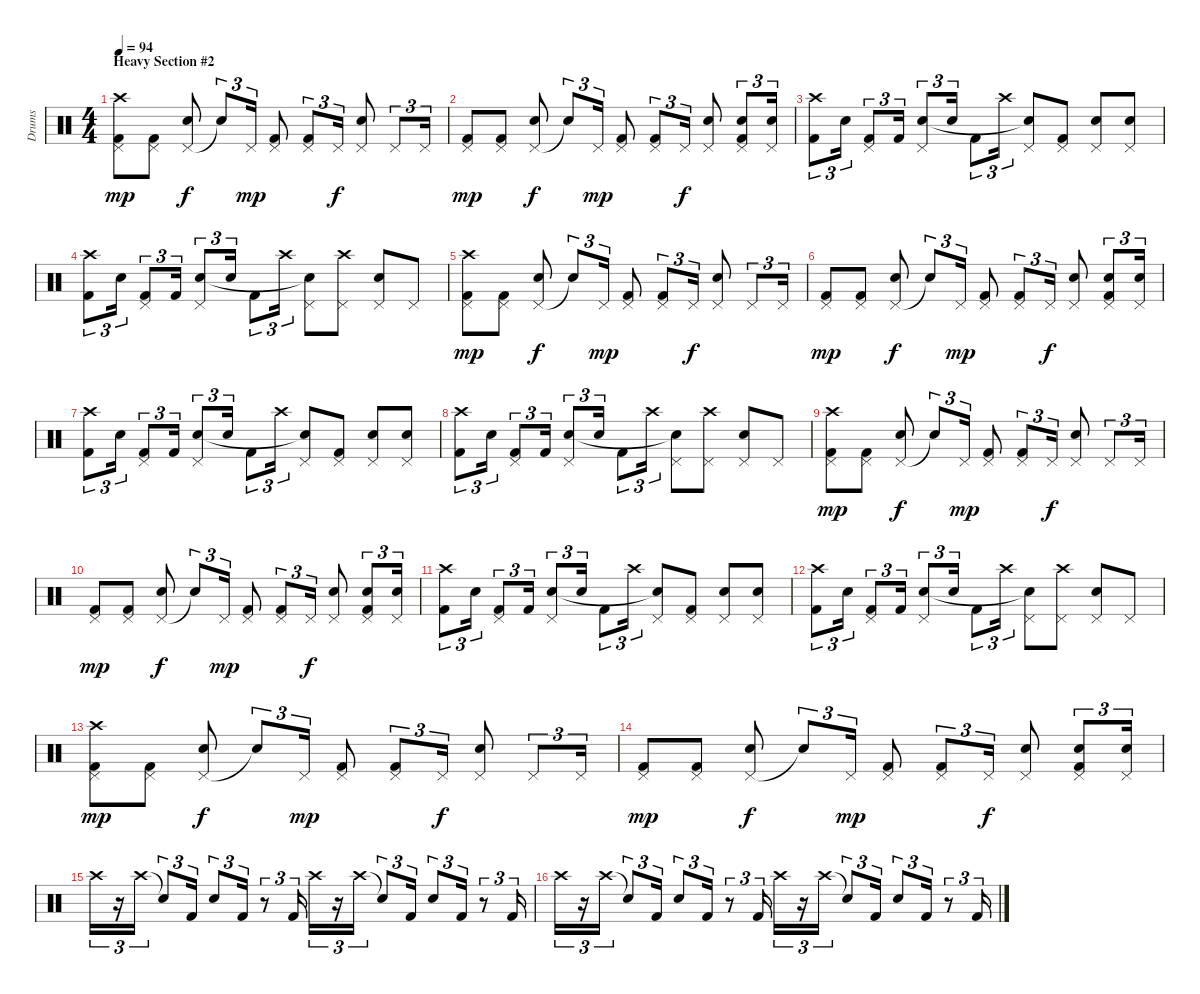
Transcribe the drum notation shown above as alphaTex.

\track ("Drums" "Drums") {instrument percussion}
\staff {score}
\articulation defaults
\ts (4 4)
\section ("" "Heavy Section #2")
\tempo 94
\clef neutral
\ks c
("Pedal Hi-Hat (hit)" "Kick (hit) 2" "Crash high (hit)").8{dy mp} ("Pedal Hi-Hat (hit)" "Kick (hit) 2").8 ("Pedal Hi-Hat (hit)" "Electric Snare (hit)").8{dy f} "Snare (hit)"{t}.8{tu (3 2)} "Pedal Hi-Hat (hit)".16{tu (3 2) dy mp} ("Pedal Hi-Hat (hit)" "Kick (hit) 2").8 ("Pedal Hi-Hat (hit)" "Kick (hit) 2").8{tu (3 2)} "Pedal Hi-Hat (hit)".16{tu (3 2) dy f} ("Pedal Hi-Hat (hit)" "Electric Snare (hit)").8 "Pedal Hi-Hat (hit)".8{tu (3 2)} "Pedal Hi-Hat (hit)".16{tu (3 2)} |
("Pedal Hi-Hat (hit)" "Kick (hit) 2").8{dy mp} ("Pedal Hi-Hat (hit)" "Kick (hit) 2").8 ("Pedal Hi-Hat (hit)" "Electric Snare (hit)").8{dy f} "Snare (hit)"{t}.8{tu (3 2)} "Pedal Hi-Hat (hit)".16{tu (3 2) dy mp} ("Pedal Hi-Hat (hit)" "Kick (hit) 2").8 ("Pedal Hi-Hat (hit)" "Kick (hit) 2").8{tu (3 2)} "Pedal Hi-Hat (hit)".16{tu (3 2) dy f} ("Pedal Hi-Hat (hit)" "Electric Snare (hit)").8 ("Pedal Hi-Hat (hit)" "Electric Snare (hit)" "Kick (hit) 2").8{tu (3 2)} ("Pedal Hi-Hat (hit)" "Electric Snare (hit)").16{tu (3 2)} |
("Kick (hit) 2" "Crash high (hit)").8{tu (3 2)} "Electric Snare (hit)".16{tu (3 2)} ("Pedal Hi-Hat (hit)" "Kick (hit) 2").8{tu (3 2)} "Kick (hit) 2".16{tu (3 2)} ("Pedal Hi-Hat (hit)" "Electric Snare (hit)").8{tu (3 2)} "Electric Snare (hit)".16{tu (3 2)} "Kick (hit) 2".8{tu (3 2)} "Crash high (hit)".16{tu (3 2)} ("Pedal Hi-Hat (hit)" "Snare (hit)"{t}).8 ("Pedal Hi-Hat (hit)" "Kick (hit) 2").8 ("Pedal Hi-Hat (hit)" "Electric Snare (hit)").8 ("Pedal Hi-Hat (hit)" "Electric Snare (hit)").8 |
("Kick (hit) 2" "Crash high (hit)").8{tu (3 2)} "Electric Snare (hit)".16{tu (3 2)} ("Pedal Hi-Hat (hit)" "Kick (hit) 2").8{tu (3 2)} "Kick (hit) 2".16{tu (3 2)} ("Pedal Hi-Hat (hit)" "Electric Snare (hit)").8{tu (3 2)} "Electric Snare (hit)".16{tu (3 2)} "Kick (hit) 2".8{tu (3 2)} "Crash high (hit)".16{tu (3 2)} ("Pedal Hi-Hat (hit)" "Snare (hit)"{t}).8 ("Pedal Hi-Hat (hit)" "Crash high (hit)").8 ("Pedal Hi-Hat (hit)" "Electric Snare (hit)").8 "Pedal Hi-Hat (hit)".8 |
("Pedal Hi-Hat (hit)" "Kick (hit) 2" "Crash high (hit)").8{dy mp} ("Pedal Hi-Hat (hit)" "Kick (hit) 2").8 ("Pedal Hi-Hat (hit)" "Electric Snare (hit)").8{dy f} "Snare (hit)"{t}.8{tu (3 2)} "Pedal Hi-Hat (hit)".16{tu (3 2) dy mp} ("Pedal Hi-Hat (hit)" "Kick (hit) 2").8 ("Pedal Hi-Hat (hit)" "Kick (hit) 2").8{tu (3 2)} "Pedal Hi-Hat (hit)".16{tu (3 2) dy f} ("Pedal Hi-Hat (hit)" "Electric Snare (hit)").8 "Pedal Hi-Hat (hit)".8{tu (3 2)} "Pedal Hi-Hat (hit)".16{tu (3 2)} |
("Pedal Hi-Hat (hit)" "Kick (hit) 2").8{dy mp} ("Pedal Hi-Hat (hit)" "Kick (hit) 2").8 ("Pedal Hi-Hat (hit)" "Electric Snare (hit)").8{dy f} "Snare (hit)"{t}.8{tu (3 2)} "Pedal Hi-Hat (hit)".16{tu (3 2) dy mp} ("Pedal Hi-Hat (hit)" "Kick (hit) 2").8 ("Pedal Hi-Hat (hit)" "Kick (hit) 2").8{tu (3 2)} "Pedal Hi-Hat (hit)".16{tu (3 2) dy f} ("Pedal Hi-Hat (hit)" "Electric Snare (hit)").8 ("Pedal Hi-Hat (hit)" "Electric Snare (hit)" "Kick (hit) 2").8{tu (3 2)} ("Pedal Hi-Hat (hit)" "Electric Snare (hit)").16{tu (3 2)} |
("Kick (hit) 2" "Crash high (hit)").8{tu (3 2)} "Electric Snare (hit)".16{tu (3 2)} ("Pedal Hi-Hat (hit)" "Kick (hit) 2").8{tu (3 2)} "Kick (hit) 2".16{tu (3 2)} ("Pedal Hi-Hat (hit)" "Electric Snare (hit)").8{tu (3 2)} "Electric Snare (hit)".16{tu (3 2)} "Kick (hit) 2".8{tu (3 2)} "Crash high (hit)".16{tu (3 2)} ("Pedal Hi-Hat (hit)" "Snare (hit)"{t}).8 ("Pedal Hi-Hat (hit)" "Kick (hit) 2").8 ("Pedal Hi-Hat (hit)" "Electric Snare (hit)").8 ("Pedal Hi-Hat (hit)" "Electric Snare (hit)").8 |
("Kick (hit) 2" "Crash high (hit)").8{tu (3 2)} "Electric Snare (hit)".16{tu (3 2)} ("Pedal Hi-Hat (hit)" "Kick (hit) 2").8{tu (3 2)} "Kick (hit) 2".16{tu (3 2)} ("Pedal Hi-Hat (hit)" "Electric Snare (hit)").8{tu (3 2)} "Electric Snare (hit)".16{tu (3 2)} "Kick (hit) 2".8{tu (3 2)} "Crash high (hit)".16{tu (3 2)} ("Pedal Hi-Hat (hit)" "Snare (hit)"{t}).8 ("Pedal Hi-Hat (hit)" "Crash high (hit)").8 ("Pedal Hi-Hat (hit)" "Electric Snare (hit)").8 "Pedal Hi-Hat (hit)".8 |
("Pedal Hi-Hat (hit)" "Kick (hit) 2" "Crash high (hit)").8{dy mp} ("Pedal Hi-Hat (hit)" "Kick (hit) 2").8 ("Pedal Hi-Hat (hit)" "Electric Snare (hit)").8{dy f} "Snare (hit)"{t}.8{tu (3 2)} "Pedal Hi-Hat (hit)".16{tu (3 2) dy mp} ("Pedal Hi-Hat (hit)" "Kick (hit) 2").8 ("Pedal Hi-Hat (hit)" "Kick (hit) 2").8{tu (3 2)} "Pedal Hi-Hat (hit)".16{tu (3 2) dy f} ("Pedal Hi-Hat (hit)" "Electric Snare (hit)").8 "Pedal Hi-Hat (hit)".8{tu (3 2)} "Pedal Hi-Hat (hit)".16{tu (3 2)} |
("Pedal Hi-Hat (hit)" "Kick (hit) 2").8{dy mp} ("Pedal Hi-Hat (hit)" "Kick (hit) 2").8 ("Pedal Hi-Hat (hit)" "Electric Snare (hit)").8{dy f} "Snare (hit)"{t}.8{tu (3 2)} "Pedal Hi-Hat (hit)".16{tu (3 2) dy mp} ("Pedal Hi-Hat (hit)" "Kick (hit) 2").8 ("Pedal Hi-Hat (hit)" "Kick (hit) 2").8{tu (3 2)} "Pedal Hi-Hat (hit)".16{tu (3 2) dy f} ("Pedal Hi-Hat (hit)" "Electric Snare (hit)").8 ("Pedal Hi-Hat (hit)" "Electric Snare (hit)" "Kick (hit) 2").8{tu (3 2)} ("Pedal Hi-Hat (hit)" "Electric Snare (hit)").16{tu (3 2)} |
("Kick (hit) 2" "Crash high (hit)").8{tu (3 2)} "Electric Snare (hit)".16{tu (3 2)} ("Pedal Hi-Hat (hit)" "Kick (hit) 2").8{tu (3 2)} "Kick (hit) 2".16{tu (3 2)} ("Pedal Hi-Hat (hit)" "Electric Snare (hit)").8{tu (3 2)} "Electric Snare (hit)".16{tu (3 2)} "Kick (hit) 2".8{tu (3 2)} "Crash high (hit)".16{tu (3 2)} ("Pedal Hi-Hat (hit)" "Snare (hit)"{t}).8 ("Pedal Hi-Hat (hit)" "Kick (hit) 2").8 ("Pedal Hi-Hat (hit)" "Electric Snare (hit)").8 ("Pedal Hi-Hat (hit)" "Electric Snare (hit)").8 |
("Kick (hit) 2" "Crash high (hit)").8{tu (3 2)} "Electric Snare (hit)".16{tu (3 2)} ("Pedal Hi-Hat (hit)" "Kick (hit) 2").8{tu (3 2)} "Kick (hit) 2".16{tu (3 2)} ("Pedal Hi-Hat (hit)" "Electric Snare (hit)").8{tu (3 2)} "Electric Snare (hit)".16{tu (3 2)} "Kick (hit) 2".8{tu (3 2)} "Crash high (hit)".16{tu (3 2)} ("Pedal Hi-Hat (hit)" "Snare (hit)"{t}).8 ("Pedal Hi-Hat (hit)" "Crash high (hit)").8 ("Pedal Hi-Hat (hit)" "Electric Snare (hit)").8 "Pedal Hi-Hat (hit)".8 |
("Pedal Hi-Hat (hit)" "Kick (hit) 2" "Crash high (hit)").8{dy mp} ("Pedal Hi-Hat (hit)" "Kick (hit) 2").8 ("Pedal Hi-Hat (hit)" "Electric Snare (hit)").8{dy f} "Snare (hit)"{t}.8{tu (3 2)} "Pedal Hi-Hat (hit)".16{tu (3 2) dy mp} ("Pedal Hi-Hat (hit)" "Kick (hit) 2").8 ("Pedal Hi-Hat (hit)" "Kick (hit) 2").8{tu (3 2)} "Pedal Hi-Hat (hit)".16{tu (3 2) dy f} ("Pedal Hi-Hat (hit)" "Electric Snare (hit)").8 "Pedal Hi-Hat (hit)".8{tu (3 2)} "Pedal Hi-Hat (hit)".16{tu (3 2)} |
("Pedal Hi-Hat (hit)" "Kick (hit) 2").8{dy mp} ("Pedal Hi-Hat (hit)" "Kick (hit) 2").8 ("Pedal Hi-Hat (hit)" "Electric Snare (hit)").8{dy f} "Snare (hit)"{t}.8{tu (3 2)} "Pedal Hi-Hat (hit)".16{tu (3 2) dy mp} ("Pedal Hi-Hat (hit)" "Kick (hit) 2").8 ("Pedal Hi-Hat (hit)" "Kick (hit) 2").8{tu (3 2)} "Pedal Hi-Hat (hit)".16{tu (3 2) dy f} ("Pedal Hi-Hat (hit)" "Electric Snare (hit)").8 ("Pedal Hi-Hat (hit)" "Electric Snare (hit)" "Kick (hit) 2").8{tu (3 2)} ("Pedal Hi-Hat (hit)" "Electric Snare (hit)").16{tu (3 2)} |
"Crash high (hit)".16{tu (3 2)} r.16{tu (3 2)} "Crash high (hit)".16{tu (3 2)} "Snare (hit)"{t}.8{tu (3 2)} "Kick (hit) 2".16{tu (3 2)} "Electric Snare (hit)".8{tu (3 2)} "Kick (hit) 2".16{tu (3 2)} r.8{tu (3 2)} "Kick (hit) 2".16{tu (3 2)} "Crash high (hit)".16{tu (3 2)} r.16{tu (3 2)} "Crash high (hit)".16{tu (3 2)} "Snare (hit)"{t}.8{tu (3 2)} "Kick (hit) 2".16{tu (3 2)} "Electric Snare (hit)".8{tu (3 2)} "Kick (hit) 2".16{tu (3 2)} r.8{tu (3 2)} "Kick (hit) 2".16{tu (3 2)} |
"Crash high (hit)".16{tu (3 2)} r.16{tu (3 2)} "Crash high (hit)".16{tu (3 2)} "Snare (hit)"{t}.8{tu (3 2)} "Kick (hit) 2".16{tu (3 2)} "Electric Snare (hit)".8{tu (3 2)} "Kick (hit) 2".16{tu (3 2)} r.8{tu (3 2)} "Kick (hit) 2".16{tu (3 2)} "Crash high (hit)".16{tu (3 2)} r.16{tu (3 2)} "Crash high (hit)".16{tu (3 2)} "Snare (hit)"{t}.8{tu (3 2)} "Kick (hit) 2".16{tu (3 2)} "Electric Snare (hit)".8{tu (3 2)} "Kick (hit) 2".16{tu (3 2)} r.8{tu (3 2)} "Kick (hit) 2".16{tu (3 2)}
